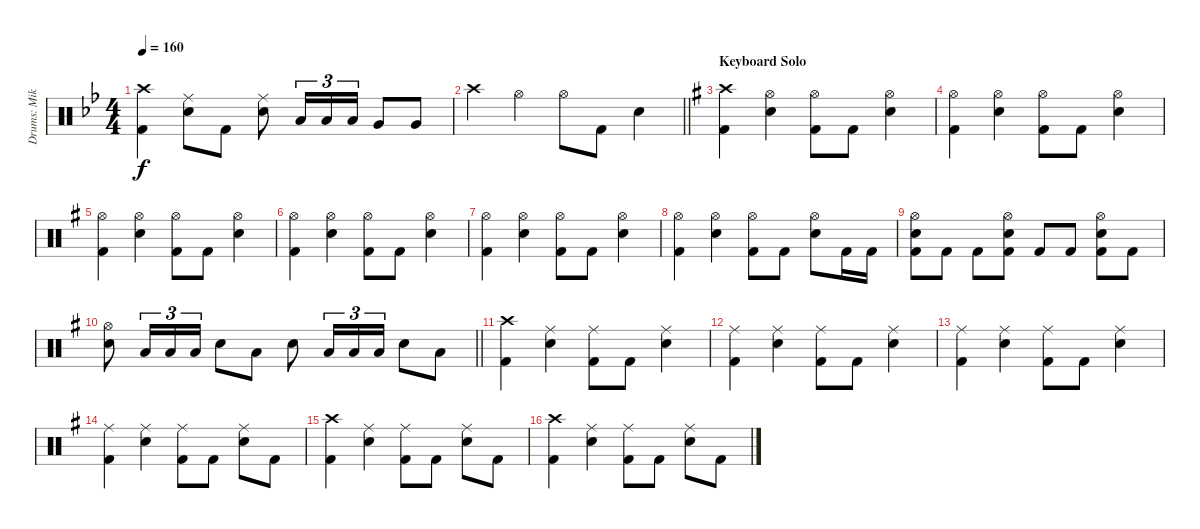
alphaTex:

\track ("Drums: Mikko Korsbäck" "Drums: Mik") {instrument percussion}
\staff {score}
\articulation defaults
\ts (4 4)
\tempo 160
\clef neutral
\ks gminor
("Crash high (hit)" "Kick (hit) 2").4{dy f} ("Ride (middle)" "Electric Snare (hit)").8 "Kick (hit) 2".8 ("Ride (middle)" "Electric Snare (hit)").8 "Low Tom (hit)".16{tu (3 2)} "Low Tom (hit)".16{tu (3 2)} "Low Tom (hit)".16{tu (3 2)} "Very Low Tom (hit)".8 "Very Low Tom (hit)".8 |
\barLineRight lightlight "Crash high (hit)".4 "Hi-Hat (open)".4 "Hi-Hat (open)".8 "Kick (hit) 2".8 "Electric Snare (hit)".4
|
\section ("" "Keyboard Solo")
\ks eminor
("Crash high (hit)" "Kick (hit) 2").4 ("Hi-Hat (open)" "Electric Snare (hit)").4 ("Hi-Hat (open)" "Kick (hit) 2").8 "Kick (hit) 2".8 ("Hi-Hat (open)" "Electric Snare (hit)").4 |
("Hi-Hat (open)" "Kick (hit) 2").4 ("Hi-Hat (open)" "Electric Snare (hit)").4 ("Hi-Hat (open)" "Kick (hit) 2").8 "Kick (hit) 2".8 ("Hi-Hat (open)" "Electric Snare (hit)").4 |
("Hi-Hat (open)" "Kick (hit) 2").4 ("Hi-Hat (open)" "Electric Snare (hit)").4 ("Hi-Hat (open)" "Kick (hit) 2").8 "Kick (hit) 2".8 ("Hi-Hat (open)" "Electric Snare (hit)").4 |
("Hi-Hat (open)" "Kick (hit) 2").4 ("Hi-Hat (open)" "Electric Snare (hit)").4 ("Hi-Hat (open)" "Kick (hit) 2").8 "Kick (hit) 2".8 ("Hi-Hat (open)" "Electric Snare (hit)").4 |
("Hi-Hat (open)" "Kick (hit) 2").4 ("Hi-Hat (open)" "Electric Snare (hit)").4 ("Hi-Hat (open)" "Kick (hit) 2").8 "Kick (hit) 2".8 ("Hi-Hat (open)" "Electric Snare (hit)").4 |
("Hi-Hat (open)" "Kick (hit) 2").4 ("Hi-Hat (open)" "Electric Snare (hit)").4 ("Hi-Hat (open)" "Kick (hit) 2").8 "Kick (hit) 2".8 ("Hi-Hat (open)" "Electric Snare (hit)").8 "Kick (hit) 2".16 "Kick (hit) 2".16 |
("Hi-Hat (open)" "Electric Snare (hit)" "Kick (hit) 2").8 "Kick (hit) 2".8 "Kick (hit) 2".8 ("Hi-Hat (open)" "Electric Snare (hit)" "Kick (hit) 2").8 "Kick (hit) 2".8 "Kick (hit) 2".8 ("Hi-Hat (open)" "Electric Snare (hit)" "Kick (hit) 2").8 "Kick (hit) 2".8 |
\barLineRight lightlight
("Hi-Hat (open)" "Electric Snare (hit)").8 "Low Tom (hit)".16{tu (3 2)} "Low Tom (hit)".16{tu (3 2)} "Low Tom (hit)".16{tu (3 2)} "Electric Snare (hit)".8 "Low Tom (hit)".8 "Electric Snare (hit)".8 "Low Tom (hit)".16{tu (3 2)} "Low Tom (hit)".16{tu (3 2)} "Low Tom (hit)".16{tu (3 2)} "Electric Snare (hit)".8 "Low Tom (hit)".8 |
("Crash high (hit)" "Kick (hit) 2").4 ("Ride (middle)" "Electric Snare (hit)").4 ("Ride (middle)" "Kick (hit) 2").8 "Kick (hit) 2".8 ("Ride (middle)" "Electric Snare (hit)").4 |
("Ride (middle)" "Kick (hit) 2").4 ("Ride (middle)" "Electric Snare (hit)").4 ("Ride (middle)" "Kick (hit) 2").8 "Kick (hit) 2".8 ("Ride (middle)" "Electric Snare (hit)").4 |
("Ride (middle)" "Kick (hit) 2").4 ("Ride (middle)" "Electric Snare (hit)").4 ("Ride (middle)" "Kick (hit) 2").8 "Kick (hit) 2".8 ("Ride (middle)" "Electric Snare (hit)").4 |
("Ride (middle)" "Kick (hit) 2").4 ("Ride (middle)" "Electric Snare (hit)").4 ("Ride (middle)" "Kick (hit) 2").8 "Kick (hit) 2".8 ("Ride (middle)" "Electric Snare (hit)").8 "Kick (hit) 2".8 |
("Crash high (hit)" "Kick (hit) 2").4 ("Ride (middle)" "Electric Snare (hit)").4 ("Ride (middle)" "Kick (hit) 2").8 "Kick (hit) 2".8 ("Ride (middle)" "Electric Snare (hit)").8 "Kick (hit) 2".8 |
("Crash high (hit)" "Kick (hit) 2").4 ("Ride (middle)" "Electric Snare (hit)").4 ("Ride (middle)" "Kick (hit) 2").8 "Kick (hit) 2".8 ("Ride (middle)" "Electric Snare (hit)").8 "Kick (hit) 2".8
